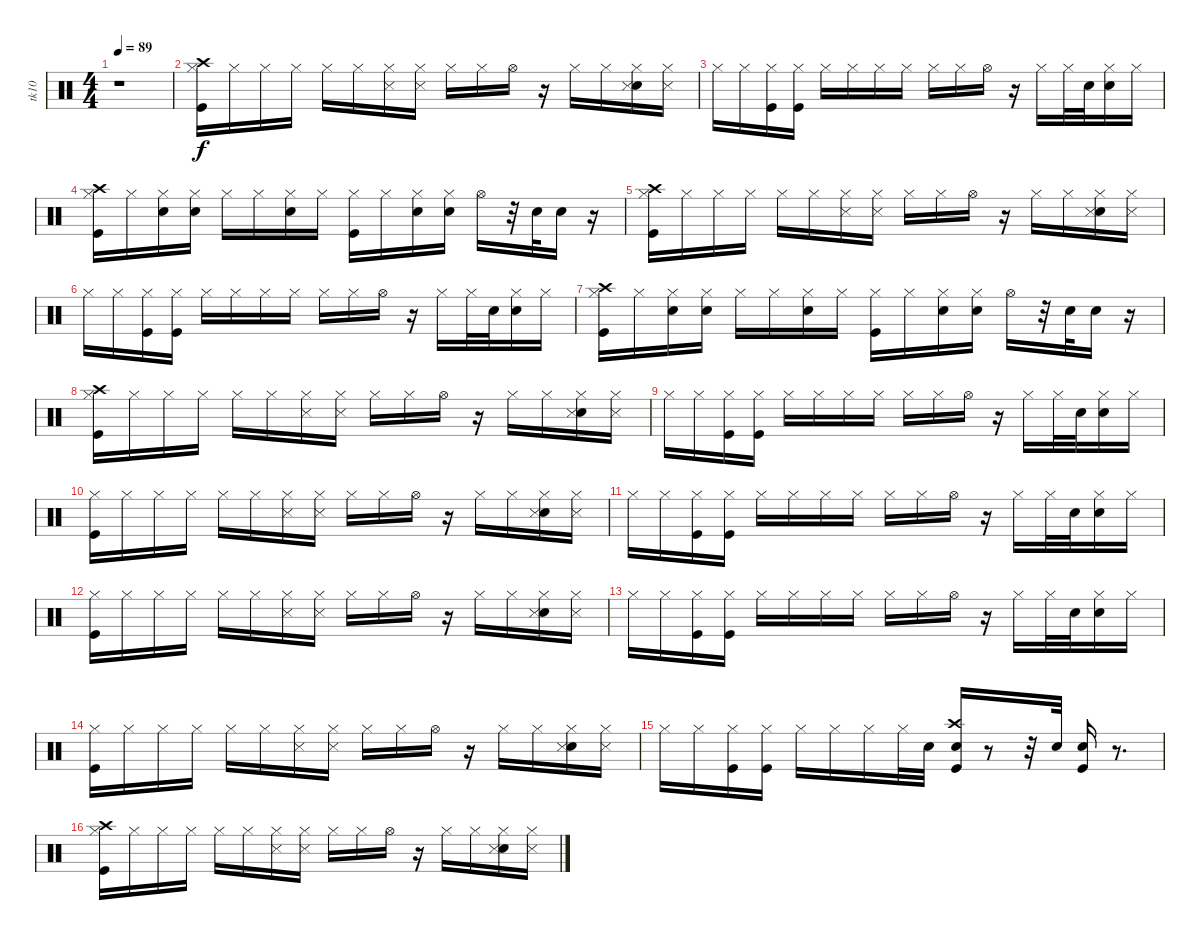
\track ("tk10" "tk10") {instrument percussion}
\staff {score}
\articulation defaults
\ts (4 4)
\tempo 89
\clef neutral
\ks c
r.1{dy f} |
("Kick (hit)" "Crash high (hit)" "Hi-Hat (closed)").16 "Hi-Hat (closed)".16 "Hi-Hat (closed)".16 "Hi-Hat (closed)".16 "Hi-Hat (closed)".16 "Hi-Hat (closed)".16 ("Snare (side stick) 3" "Hi-Hat (closed)").16 ("Snare (side stick) 3" "Hi-Hat (closed)").16 "Hi-Hat (closed)".16 "Hi-Hat (closed)".16 "Hi-Hat (open)".16 r.16 "Hi-Hat (closed)".16 "Hi-Hat (closed)".16 ("Snare (hit) 2" "Snare (side stick) 3" "Hi-Hat (closed)").16 ("Snare (side stick) 3" "Hi-Hat (closed)").16 |
"Hi-Hat (closed)".16 "Hi-Hat (closed)".16 ("Hi-Hat (closed)" "Kick (hit)").16 ("Hi-Hat (closed)" "Kick (hit)").16 "Hi-Hat (closed)".16 "Hi-Hat (closed)".16 "Hi-Hat (closed)".16 "Hi-Hat (closed)".16 "Hi-Hat (closed)".16 "Hi-Hat (closed)".16 "Hi-Hat (open)".16 r.16 "Hi-Hat (closed)".16 "Hi-Hat (closed)".32 "Snare (hit) 2".32 ("Snare (hit) 2" "Hi-Hat (closed)").16 "Hi-Hat (closed)".16 |
("Kick (hit)" "Crash high (hit)" "Hi-Hat (closed)").16 "Hi-Hat (closed)".16 ("Snare (hit) 2" "Hi-Hat (closed)").16 ("Snare (hit) 2" "Hi-Hat (closed)").16 "Hi-Hat (closed)".16 "Hi-Hat (closed)".16 ("Snare (hit) 2" "Hi-Hat (closed)").16 "Hi-Hat (closed)".16 ("Kick (hit)" "Hi-Hat (closed)").16 "Hi-Hat (closed)".16 ("Snare (hit) 2" "Hi-Hat (closed)").16 ("Snare (hit) 2" "Hi-Hat (closed)").16 "Hi-Hat (open)".16 r.32 "Snare (hit) 2".32 "Snare (hit) 2".16 r.16 |
("Kick (hit)" "Crash high (hit)" "Hi-Hat (closed)").16 "Hi-Hat (closed)".16 "Hi-Hat (closed)".16 "Hi-Hat (closed)".16 "Hi-Hat (closed)".16 "Hi-Hat (closed)".16 ("Snare (side stick) 3" "Hi-Hat (closed)").16 ("Snare (side stick) 3" "Hi-Hat (closed)").16 "Hi-Hat (closed)".16 "Hi-Hat (closed)".16 "Hi-Hat (open)".16 r.16 "Hi-Hat (closed)".16 "Hi-Hat (closed)".16 ("Snare (hit) 2" "Snare (side stick) 3" "Hi-Hat (closed)").16 ("Snare (side stick) 3" "Hi-Hat (closed)").16 |
"Hi-Hat (closed)".16 "Hi-Hat (closed)".16 ("Hi-Hat (closed)" "Kick (hit)").16 ("Hi-Hat (closed)" "Kick (hit)").16 "Hi-Hat (closed)".16 "Hi-Hat (closed)".16 "Hi-Hat (closed)".16 "Hi-Hat (closed)".16 "Hi-Hat (closed)".16 "Hi-Hat (closed)".16 "Hi-Hat (open)".16 r.16 "Hi-Hat (closed)".16 "Hi-Hat (closed)".32 "Snare (hit) 2".32 ("Snare (hit) 2" "Hi-Hat (closed)").16 "Hi-Hat (closed)".16 |
("Kick (hit)" "Crash high (hit)" "Hi-Hat (closed)").16 "Hi-Hat (closed)".16 ("Snare (hit) 2" "Hi-Hat (closed)").16 ("Snare (hit) 2" "Hi-Hat (closed)").16 "Hi-Hat (closed)".16 "Hi-Hat (closed)".16 ("Snare (hit) 2" "Hi-Hat (closed)").16 "Hi-Hat (closed)".16 ("Kick (hit)" "Hi-Hat (closed)").16 "Hi-Hat (closed)".16 ("Snare (hit) 2" "Hi-Hat (closed)").16 ("Snare (hit) 2" "Hi-Hat (closed)").16 "Hi-Hat (open)".16 r.32 "Snare (hit) 2".32 "Snare (hit) 2".16 r.16 |
("Kick (hit)" "Crash high (hit)" "Hi-Hat (closed)").16 "Hi-Hat (closed)".16 "Hi-Hat (closed)".16 "Hi-Hat (closed)".16 "Hi-Hat (closed)".16 "Hi-Hat (closed)".16 ("Snare (side stick) 3" "Hi-Hat (closed)").16 ("Snare (side stick) 3" "Hi-Hat (closed)").16 "Hi-Hat (closed)".16 "Hi-Hat (closed)".16 "Hi-Hat (open)".16 r.16 "Hi-Hat (closed)".16 "Hi-Hat (closed)".16 ("Snare (hit) 2" "Snare (side stick) 3" "Hi-Hat (closed)").16 ("Snare (side stick) 3" "Hi-Hat (closed)").16 |
"Hi-Hat (closed)".16 "Hi-Hat (closed)".16 ("Hi-Hat (closed)" "Kick (hit)").16 ("Hi-Hat (closed)" "Kick (hit)").16 "Hi-Hat (closed)".16 "Hi-Hat (closed)".16 "Hi-Hat (closed)".16 "Hi-Hat (closed)".16 "Hi-Hat (closed)".16 "Hi-Hat (closed)".16 "Hi-Hat (open)".16 r.16 "Hi-Hat (closed)".16 "Hi-Hat (closed)".32 "Snare (hit) 2".32 ("Snare (hit) 2" "Hi-Hat (closed)").16 "Hi-Hat (closed)".16 |
("Kick (hit)" "Hi-Hat (closed)").16 "Hi-Hat (closed)".16 "Hi-Hat (closed)".16 "Hi-Hat (closed)".16 "Hi-Hat (closed)".16 "Hi-Hat (closed)".16 ("Snare (side stick) 3" "Hi-Hat (closed)").16 ("Snare (side stick) 3" "Hi-Hat (closed)").16 "Hi-Hat (closed)".16 "Hi-Hat (closed)".16 "Hi-Hat (open)".16 r.16 "Hi-Hat (closed)".16 "Hi-Hat (closed)".16 ("Snare (hit) 2" "Snare (side stick) 3" "Hi-Hat (closed)").16 ("Snare (side stick) 3" "Hi-Hat (closed)").16 |
"Hi-Hat (closed)".16 "Hi-Hat (closed)".16 ("Hi-Hat (closed)" "Kick (hit)").16 ("Hi-Hat (closed)" "Kick (hit)").16 "Hi-Hat (closed)".16 "Hi-Hat (closed)".16 "Hi-Hat (closed)".16 "Hi-Hat (closed)".16 "Hi-Hat (closed)".16 "Hi-Hat (closed)".16 "Hi-Hat (open)".16 r.16 "Hi-Hat (closed)".16 "Hi-Hat (closed)".32 "Snare (hit) 2".32 ("Snare (hit) 2" "Hi-Hat (closed)").16 "Hi-Hat (closed)".16 |
("Kick (hit)" "Hi-Hat (closed)").16 "Hi-Hat (closed)".16 "Hi-Hat (closed)".16 "Hi-Hat (closed)".16 "Hi-Hat (closed)".16 "Hi-Hat (closed)".16 ("Snare (side stick) 3" "Hi-Hat (closed)").16 ("Snare (side stick) 3" "Hi-Hat (closed)").16 "Hi-Hat (closed)".16 "Hi-Hat (closed)".16 "Hi-Hat (open)".16 r.16 "Hi-Hat (closed)".16 "Hi-Hat (closed)".16 ("Snare (hit) 2" "Snare (side stick) 3" "Hi-Hat (closed)").16 ("Snare (side stick) 3" "Hi-Hat (closed)").16 |
"Hi-Hat (closed)".16 "Hi-Hat (closed)".16 ("Hi-Hat (closed)" "Kick (hit)").16 ("Hi-Hat (closed)" "Kick (hit)").16 "Hi-Hat (closed)".16 "Hi-Hat (closed)".16 "Hi-Hat (closed)".16 "Hi-Hat (closed)".16 "Hi-Hat (closed)".16 "Hi-Hat (closed)".16 "Hi-Hat (open)".16 r.16 "Hi-Hat (closed)".16 "Hi-Hat (closed)".32 "Snare (hit) 2".32 ("Snare (hit) 2" "Hi-Hat (closed)").16 "Hi-Hat (closed)".16 |
("Kick (hit)" "Hi-Hat (closed)").16 "Hi-Hat (closed)".16 "Hi-Hat (closed)".16 "Hi-Hat (closed)".16 "Hi-Hat (closed)".16 "Hi-Hat (closed)".16 ("Snare (side stick) 3" "Hi-Hat (closed)").16 ("Snare (side stick) 3" "Hi-Hat (closed)").16 "Hi-Hat (closed)".16 "Hi-Hat (closed)".16 "Hi-Hat (open)".16 r.16 "Hi-Hat (closed)".16 "Hi-Hat (closed)".16 ("Snare (hit) 2" "Snare (side stick) 3" "Hi-Hat (closed)").16 ("Snare (side stick) 3" "Hi-Hat (closed)").16 |
"Hi-Hat (closed)".16 "Hi-Hat (closed)".16 ("Hi-Hat (closed)" "Kick (hit)").16 ("Hi-Hat (closed)" "Kick (hit)").16 "Hi-Hat (closed)".16 "Hi-Hat (closed)".16 "Hi-Hat (closed)".16 "Hi-Hat (closed)".32 "Snare (hit) 2".32 ("Snare (hit) 2" "Kick (hit)" "Crash high (hit)").16 r.8 r.32 "Snare (hit) 2".32 ("Kick (hit)" "Snare (hit) 2").16 r.8{d} |
("Kick (hit)" "Crash high (hit)" "Hi-Hat (closed)").16 "Hi-Hat (closed)".16 "Hi-Hat (closed)".16 "Hi-Hat (closed)".16 "Hi-Hat (closed)".16 "Hi-Hat (closed)".16 ("Snare (side stick) 3" "Hi-Hat (closed)").16 ("Snare (side stick) 3" "Hi-Hat (closed)").16 "Hi-Hat (closed)".16 "Hi-Hat (closed)".16 "Hi-Hat (open)".16 r.16 "Hi-Hat (closed)".16 "Hi-Hat (closed)".16 ("Snare (hit) 2" "Snare (side stick) 3" "Hi-Hat (closed)").16 ("Snare (side stick) 3" "Hi-Hat (closed)").16
